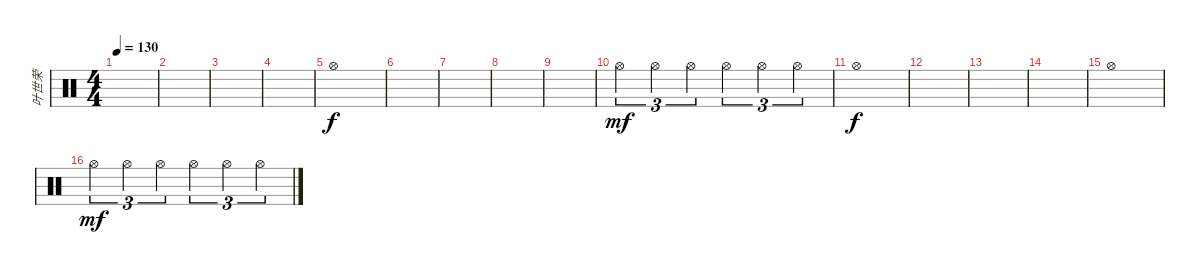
\track ("叶世荣" "叶世荣") {instrument percussion}
\staff {score}
\articulation defaults
\ts (4 4)
\tempo 130
\clef neutral
\ks c
|
|
|
|
"Hi-Hat (open)".1 |
|
|
|
|
"Hi-Hat (open)".4{tu (3 2) dy mf} "Hi-Hat (open)".4{tu (3 2)} "Hi-Hat (open)".4{tu (3 2)} "Hi-Hat (open)".4{tu (3 2)} "Hi-Hat (open)".4{tu (3 2)} "Hi-Hat (open)".4{tu (3 2)} |
"Hi-Hat (open)".1{dy f} |
|
|
|
"Hi-Hat (open)".1 |
"Hi-Hat (open)".4{tu (3 2) dy mf} "Hi-Hat (open)".4{tu (3 2)} "Hi-Hat (open)".4{tu (3 2)} "Hi-Hat (open)".4{tu (3 2)} "Hi-Hat (open)".4{tu (3 2)} "Hi-Hat (open)".4{tu (3 2)}
